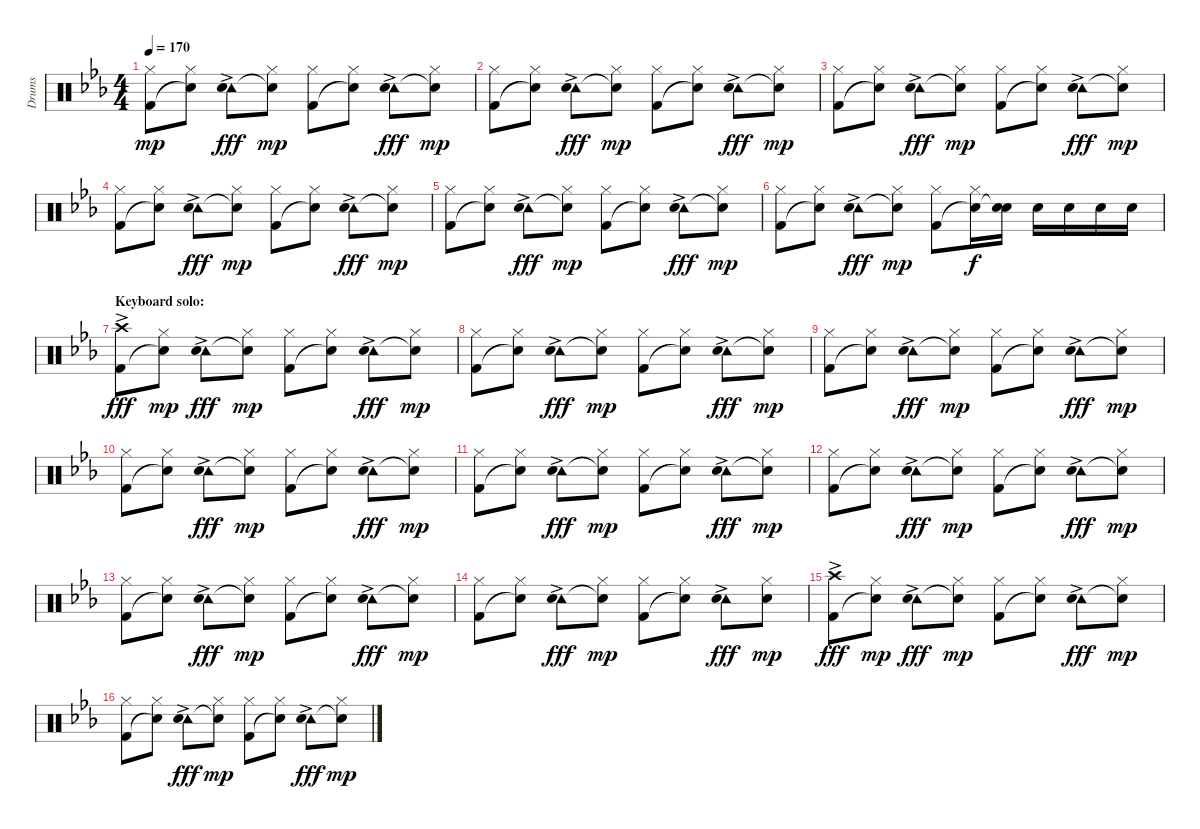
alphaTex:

\track ("Drums" "Drums") {instrument percussion}
\staff {score}
\articulation defaults
\ts (4 4)
\tempo 170
\clef neutral
\ks cminor
("Hi-Hat (closed)" "Kick (hit) 2").8{dy mp} ("Hi-Hat (closed)" "Snare (hit)"{t}).8 ("Tambourine (hit)"{ac} "Hand Clap (hit)").8{dy fff} ("Hi-Hat (closed)" "Snare (hit)"{t}).8{dy mp} ("Hi-Hat (closed)" "Kick (hit) 2").8 ("Hi-Hat (closed)" "Snare (hit)"{t}).8 ("Tambourine (hit)"{ac} "Hand Clap (hit)").8{dy fff} ("Hi-Hat (closed)" "Snare (hit)"{t}).8{dy mp} |
("Hi-Hat (closed)" "Kick (hit) 2").8 ("Hi-Hat (closed)" "Snare (hit)"{t}).8 ("Tambourine (hit)"{ac} "Hand Clap (hit)").8{dy fff} ("Hi-Hat (closed)" "Snare (hit)"{t}).8{dy mp} ("Hi-Hat (closed)" "Kick (hit) 2").8 ("Hi-Hat (closed)" "Snare (hit)"{t}).8 ("Tambourine (hit)"{ac} "Hand Clap (hit)").8{dy fff} ("Hi-Hat (closed)" "Snare (hit)"{t}).8{dy mp} |
("Hi-Hat (closed)" "Kick (hit) 2").8 ("Hi-Hat (closed)" "Snare (hit)"{t}).8 ("Tambourine (hit)"{ac} "Hand Clap (hit)").8{dy fff} ("Hi-Hat (closed)" "Snare (hit)"{t}).8{dy mp} ("Hi-Hat (closed)" "Kick (hit) 2").8 ("Hi-Hat (closed)" "Snare (hit)"{t}).8 ("Tambourine (hit)"{ac} "Hand Clap (hit)").8{dy fff} ("Hi-Hat (closed)" "Snare (hit)"{t}).8{dy mp} |
("Hi-Hat (closed)" "Kick (hit) 2").8 ("Hi-Hat (closed)" "Snare (hit)"{t}).8 ("Tambourine (hit)"{ac} "Hand Clap (hit)").8{dy fff} ("Hi-Hat (closed)" "Snare (hit)"{t}).8{dy mp} ("Hi-Hat (closed)" "Kick (hit) 2").8 ("Hi-Hat (closed)" "Snare (hit)"{t}).8 ("Tambourine (hit)"{ac} "Hand Clap (hit)").8{dy fff} ("Hi-Hat (closed)" "Snare (hit)"{t}).8{dy mp} |
("Hi-Hat (closed)" "Kick (hit) 2").8 ("Hi-Hat (closed)" "Snare (hit)"{t}).8 ("Tambourine (hit)"{ac} "Hand Clap (hit)").8{dy fff} ("Hi-Hat (closed)" "Snare (hit)"{t}).8{dy mp} ("Hi-Hat (closed)" "Kick (hit) 2").8 ("Hi-Hat (closed)" "Snare (hit)"{t}).8 ("Tambourine (hit)"{ac} "Hand Clap (hit)").8{dy fff} ("Hi-Hat (closed)" "Snare (hit)"{t}).8{dy mp} |
("Hi-Hat (closed)" "Kick (hit) 2").8 ("Hi-Hat (closed)" "Snare (hit)"{t}).8 ("Tambourine (hit)"{ac} "Hand Clap (hit)").8{dy fff} ("Hi-Hat (closed)" "Snare (hit)"{t}).8{dy mp} ("Hi-Hat (closed)" "Kick (hit) 2").8 ("Hi-Hat (closed)" "Snare (hit)"{t}).16{dy f} ("Snare (hit) 2" "Snare (hit)"{t}).16 "Snare (hit) 2".16 "Snare (hit) 2".16 "Snare (hit) 2".16 "Snare (hit) 2".16 |
\section ("" "Keyboard solo:")
("Crash high (hit)"{ac} "Kick (hit) 2").8{dy fff} ("Hi-Hat (closed)" "Snare (hit)"{t}).8{dy mp} ("Tambourine (hit)"{ac} "Hand Clap (hit)").8{dy fff} ("Hi-Hat (closed)" "Snare (hit)"{t}).8{dy mp} ("Hi-Hat (closed)" "Kick (hit) 2").8 ("Hi-Hat (closed)" "Snare (hit)"{t}).8 ("Tambourine (hit)"{ac} "Hand Clap (hit)").8{dy fff} ("Hi-Hat (closed)" "Snare (hit)"{t}).8{dy mp} |
("Hi-Hat (closed)" "Kick (hit) 2").8 ("Hi-Hat (closed)" "Snare (hit)"{t}).8 ("Tambourine (hit)"{ac} "Hand Clap (hit)").8{dy fff} ("Hi-Hat (closed)" "Snare (hit)"{t}).8{dy mp} ("Hi-Hat (closed)" "Kick (hit) 2").8 ("Hi-Hat (closed)" "Snare (hit)"{t}).8 ("Tambourine (hit)"{ac} "Hand Clap (hit)").8{dy fff} ("Hi-Hat (closed)" "Snare (hit)"{t}).8{dy mp} |
("Hi-Hat (closed)" "Kick (hit) 2").8 ("Hi-Hat (closed)" "Snare (hit)"{t}).8 ("Tambourine (hit)"{ac} "Hand Clap (hit)").8{dy fff} ("Hi-Hat (closed)" "Snare (hit)"{t}).8{dy mp} ("Hi-Hat (closed)" "Kick (hit) 2").8 ("Hi-Hat (closed)" "Snare (hit)"{t}).8 ("Tambourine (hit)"{ac} "Hand Clap (hit)").8{dy fff} ("Hi-Hat (closed)" "Snare (hit)"{t}).8{dy mp} |
("Hi-Hat (closed)" "Kick (hit) 2").8 ("Hi-Hat (closed)" "Snare (hit)"{t}).8 ("Tambourine (hit)"{ac} "Hand Clap (hit)").8{dy fff} ("Hi-Hat (closed)" "Snare (hit)"{t}).8{dy mp} ("Hi-Hat (closed)" "Kick (hit) 2").8 ("Hi-Hat (closed)" "Snare (hit)"{t}).8 ("Tambourine (hit)"{ac} "Hand Clap (hit)").8{dy fff} ("Hi-Hat (closed)" "Snare (hit)"{t}).8{dy mp} |
("Hi-Hat (closed)" "Kick (hit) 2").8 ("Hi-Hat (closed)" "Snare (hit)"{t}).8 ("Tambourine (hit)"{ac} "Hand Clap (hit)").8{dy fff} ("Hi-Hat (closed)" "Snare (hit)"{t}).8{dy mp} ("Hi-Hat (closed)" "Kick (hit) 2").8 ("Hi-Hat (closed)" "Snare (hit)"{t}).8 ("Tambourine (hit)"{ac} "Hand Clap (hit)").8{dy fff} ("Hi-Hat (closed)" "Snare (hit)"{t}).8{dy mp} |
("Hi-Hat (closed)" "Kick (hit) 2").8 ("Hi-Hat (closed)" "Snare (hit)"{t}).8 ("Tambourine (hit)"{ac} "Hand Clap (hit)").8{dy fff} ("Hi-Hat (closed)" "Snare (hit)"{t}).8{dy mp} ("Hi-Hat (closed)" "Kick (hit) 2").8 ("Hi-Hat (closed)" "Snare (hit)"{t}).8 ("Tambourine (hit)"{ac} "Hand Clap (hit)").8{dy fff} ("Hi-Hat (closed)" "Snare (hit)"{t}).8{dy mp} |
("Hi-Hat (closed)" "Kick (hit) 2").8 ("Hi-Hat (closed)" "Snare (hit)"{t}).8 ("Tambourine (hit)"{ac} "Hand Clap (hit)").8{dy fff} ("Hi-Hat (closed)" "Snare (hit)"{t}).8{dy mp} ("Hi-Hat (closed)" "Kick (hit) 2").8 ("Hi-Hat (closed)" "Snare (hit)"{t}).8 ("Tambourine (hit)"{ac} "Hand Clap (hit)").8{dy fff} ("Hi-Hat (closed)" "Snare (hit)"{t}).8{dy mp} |
("Hi-Hat (closed)" "Kick (hit) 2").8 ("Hi-Hat (closed)" "Snare (hit)"{t}).8 ("Tambourine (hit)"{ac} "Hand Clap (hit)").8{dy fff} ("Hi-Hat (closed)" "Snare (hit)"{t}).8{dy mp} ("Hi-Hat (closed)" "Kick (hit) 2").8 ("Hi-Hat (closed)" "Snare (hit)"{t}).8 ("Tambourine (hit)"{ac} "Snare (hit) 2").8{dy fff} ("Hi-Hat (closed)" "Snare (hit) 2").8{dy mp} |
("Crash high (hit)"{ac} "Kick (hit) 2").8{dy fff} ("Hi-Hat (closed)" "Snare (hit)"{t}).8{dy mp} ("Tambourine (hit)"{ac} "Hand Clap (hit)").8{dy fff} ("Hi-Hat (closed)" "Snare (hit)"{t}).8{dy mp} ("Hi-Hat (closed)" "Kick (hit) 2").8 ("Hi-Hat (closed)" "Snare (hit)"{t}).8 ("Tambourine (hit)"{ac} "Hand Clap (hit)").8{dy fff} ("Hi-Hat (closed)" "Snare (hit)"{t}).8{dy mp} |
("Hi-Hat (closed)" "Kick (hit) 2").8 ("Hi-Hat (closed)" "Snare (hit)"{t}).8 ("Tambourine (hit)"{ac} "Hand Clap (hit)").8{dy fff} ("Hi-Hat (closed)" "Snare (hit)"{t}).8{dy mp} ("Hi-Hat (closed)" "Kick (hit) 2").8 ("Hi-Hat (closed)" "Snare (hit)"{t}).8 ("Tambourine (hit)"{ac} "Hand Clap (hit)").8{dy fff} ("Hi-Hat (closed)" "Snare (hit)"{t}).8{dy mp}
